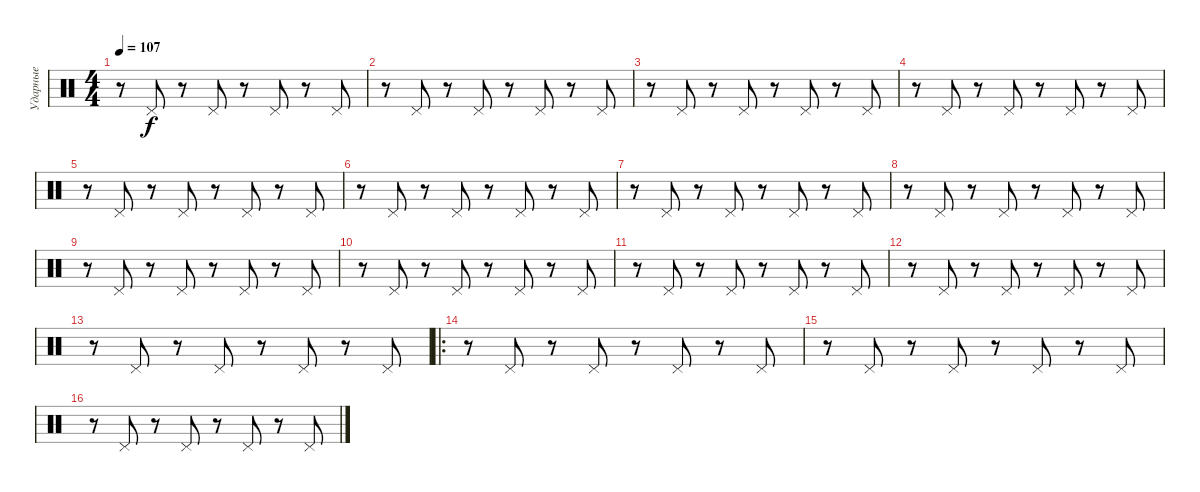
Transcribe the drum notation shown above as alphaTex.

\track ("Ударные" "Ударные") {instrument percussion}
\staff {score}
\articulation defaults
\ts (4 4)
\tempo 107
\clef neutral
\ks c
r.8{dy f} "Pedal Hi-Hat (hit)".8 r.8 "Pedal Hi-Hat (hit)".8 r.8 "Pedal Hi-Hat (hit)".8 r.8 "Pedal Hi-Hat (hit)".8 |
r.8 "Pedal Hi-Hat (hit)".8 r.8 "Pedal Hi-Hat (hit)".8 r.8 "Pedal Hi-Hat (hit)".8 r.8 "Pedal Hi-Hat (hit)".8 |
r.8 "Pedal Hi-Hat (hit)".8 r.8 "Pedal Hi-Hat (hit)".8 r.8 "Pedal Hi-Hat (hit)".8 r.8 "Pedal Hi-Hat (hit)".8 |
r.8 "Pedal Hi-Hat (hit)".8 r.8 "Pedal Hi-Hat (hit)".8 r.8 "Pedal Hi-Hat (hit)".8 r.8 "Pedal Hi-Hat (hit)".8 |
r.8 "Pedal Hi-Hat (hit)".8 r.8 "Pedal Hi-Hat (hit)".8 r.8 "Pedal Hi-Hat (hit)".8 r.8 "Pedal Hi-Hat (hit)".8 |
r.8 "Pedal Hi-Hat (hit)".8 r.8 "Pedal Hi-Hat (hit)".8 r.8 "Pedal Hi-Hat (hit)".8 r.8 "Pedal Hi-Hat (hit)".8 |
r.8 "Pedal Hi-Hat (hit)".8 r.8 "Pedal Hi-Hat (hit)".8 r.8 "Pedal Hi-Hat (hit)".8 r.8 "Pedal Hi-Hat (hit)".8 |
r.8 "Pedal Hi-Hat (hit)".8 r.8 "Pedal Hi-Hat (hit)".8 r.8 "Pedal Hi-Hat (hit)".8 r.8 "Pedal Hi-Hat (hit)".8 |
r.8 "Pedal Hi-Hat (hit)".8 r.8 "Pedal Hi-Hat (hit)".8 r.8 "Pedal Hi-Hat (hit)".8 r.8 "Pedal Hi-Hat (hit)".8 |
r.8 "Pedal Hi-Hat (hit)".8 r.8 "Pedal Hi-Hat (hit)".8 r.8 "Pedal Hi-Hat (hit)".8 r.8 "Pedal Hi-Hat (hit)".8 |
r.8 "Pedal Hi-Hat (hit)".8 r.8 "Pedal Hi-Hat (hit)".8 r.8 "Pedal Hi-Hat (hit)".8 r.8 "Pedal Hi-Hat (hit)".8 |
r.8 "Pedal Hi-Hat (hit)".8 r.8 "Pedal Hi-Hat (hit)".8 r.8 "Pedal Hi-Hat (hit)".8 r.8 "Pedal Hi-Hat (hit)".8 |
r.8 "Pedal Hi-Hat (hit)".8 r.8 "Pedal Hi-Hat (hit)".8 r.8 "Pedal Hi-Hat (hit)".8 r.8 "Pedal Hi-Hat (hit)".8 |
\ro
r.8 "Pedal Hi-Hat (hit)".8 r.8 "Pedal Hi-Hat (hit)".8 r.8 "Pedal Hi-Hat (hit)".8 r.8 "Pedal Hi-Hat (hit)".8 |
r.8 "Pedal Hi-Hat (hit)".8 r.8 "Pedal Hi-Hat (hit)".8 r.8 "Pedal Hi-Hat (hit)".8 r.8 "Pedal Hi-Hat (hit)".8 |
r.8 "Pedal Hi-Hat (hit)".8 r.8 "Pedal Hi-Hat (hit)".8 r.8 "Pedal Hi-Hat (hit)".8 r.8 "Pedal Hi-Hat (hit)".8
